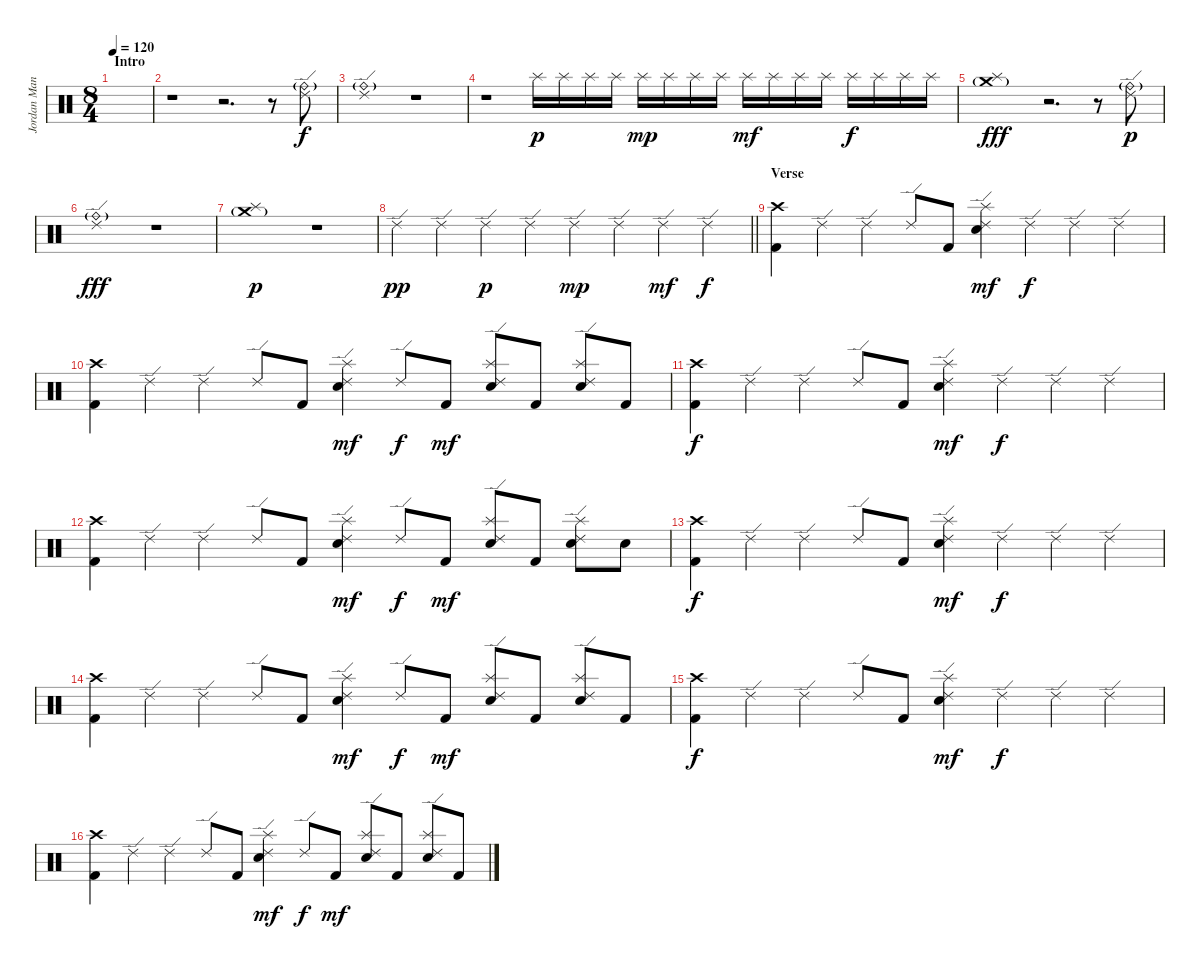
\track ("Jordan Mancino" "Jordan Man") {instrument percussion}
\staff {score}
\articulation defaults
\ts (8 4)
\section ("" "Intro")
\tempo 120
\clef neutral
\ks c
|
r.1 r.2{d} r.8 ("Ride (edge) 2" "Ride (bell)"{g}).8 |
("Ride (edge) 2" "Ride (bell)"{g}).1 r.1 |
r.1 "Splash (hit)".16{dy p} "Splash (hit)".16 "Splash (hit)".16 "Splash (hit)".16 "Splash (hit)".16{dy mp} "Splash (hit)".16 "Splash (hit)".16 "Splash (hit)".16 "Splash (hit)".16{dy mf} "Splash (hit)".16 "Splash (hit)".16 "Splash (hit)".16 "Splash (hit)".16{dy f} "Splash (hit)".16 "Splash (hit)".16 "Splash (hit)".16 |
("Splash (hit)" "Crash medium (hit)"{g}).1{dy fff} r.2{d} r.8 ("Ride (edge) 2" "Ride (bell)"{g}).8{dy p} |
("Ride (edge) 2" "Ride (bell)"{g}).1{dy fff} r.1 |
("Splash (hit)" "Crash medium (hit)"{g}).1{dy p} r.1 |
\barLineRight lightlight "Ride (edge) 2".4{dy pp} "Ride (edge) 2".4 "Ride (edge) 2".4{dy p} "Ride (edge) 2".4 "Ride (edge) 2".4{dy mp} "Ride (edge) 2".4 "Ride (edge) 2".4{dy mf} "Ride (edge) 2".4{dy f}
|
\section ("" "Verse")
("Crash high (hit)" "Kick (hit) 2").4 "Ride (edge) 2".4 "Ride (edge) 2".4 "Ride (edge) 2".8 "Kick (hit) 2".8 ("Ride (edge) 2" "Splash (hit)" "Electric Snare (hit)").4{dy mf} "Ride (edge) 2".4{dy f} "Ride (edge) 2".4 "Ride (edge) 2".4 |
("Crash high (hit)" "Kick (hit) 2").4 "Ride (edge) 2".4 "Ride (edge) 2".4 "Ride (edge) 2".8 "Kick (hit) 2".8 ("Ride (edge) 2" "Splash (hit)" "Electric Snare (hit)").4{dy mf} "Ride (edge) 2".8{dy f} "Kick (hit) 2".8{dy mf} ("Ride (edge) 2" "Splash (hit)" "Electric Snare (hit)").8 "Kick (hit) 2".8 ("Ride (edge) 2" "Splash (hit)" "Electric Snare (hit)").8 "Kick (hit) 2".8 |
("Crash high (hit)" "Kick (hit) 2").4{dy f} "Ride (edge) 2".4 "Ride (edge) 2".4 "Ride (edge) 2".8 "Kick (hit) 2".8 ("Ride (edge) 2" "Splash (hit)" "Electric Snare (hit)").4{dy mf} "Ride (edge) 2".4{dy f} "Ride (edge) 2".4 "Ride (edge) 2".4 |
("Crash high (hit)" "Kick (hit) 2").4 "Ride (edge) 2".4 "Ride (edge) 2".4 "Ride (edge) 2".8 "Kick (hit) 2".8 ("Ride (edge) 2" "Splash (hit)" "Electric Snare (hit)").4{dy mf} "Ride (edge) 2".8{dy f} "Kick (hit) 2".8{dy mf} ("Ride (edge) 2" "Splash (hit)" "Electric Snare (hit)").8 "Kick (hit) 2".8 ("Ride (edge) 2" "Splash (hit)" "Electric Snare (hit)").8 "Electric Snare (hit)".8 |
("Crash high (hit)" "Kick (hit) 2").4{dy f} "Ride (edge) 2".4 "Ride (edge) 2".4 "Ride (edge) 2".8 "Kick (hit) 2".8 ("Ride (edge) 2" "Splash (hit)" "Electric Snare (hit)").4{dy mf} "Ride (edge) 2".4{dy f} "Ride (edge) 2".4 "Ride (edge) 2".4 |
("Crash high (hit)" "Kick (hit) 2").4 "Ride (edge) 2".4 "Ride (edge) 2".4 "Ride (edge) 2".8 "Kick (hit) 2".8 ("Ride (edge) 2" "Splash (hit)" "Electric Snare (hit)").4{dy mf} "Ride (edge) 2".8{dy f} "Kick (hit) 2".8{dy mf} ("Ride (edge) 2" "Splash (hit)" "Electric Snare (hit)").8 "Kick (hit) 2".8 ("Ride (edge) 2" "Splash (hit)" "Electric Snare (hit)").8 "Kick (hit) 2".8 |
("Crash high (hit)" "Kick (hit) 2").4{dy f} "Ride (edge) 2".4 "Ride (edge) 2".4 "Ride (edge) 2".8 "Kick (hit) 2".8 ("Ride (edge) 2" "Splash (hit)" "Electric Snare (hit)").4{dy mf} "Ride (edge) 2".4{dy f} "Ride (edge) 2".4 "Ride (edge) 2".4 |
("Crash high (hit)" "Kick (hit) 2").4 "Ride (edge) 2".4 "Ride (edge) 2".4 "Ride (edge) 2".8 "Kick (hit) 2".8 ("Ride (edge) 2" "Splash (hit)" "Electric Snare (hit)").4{dy mf} "Ride (edge) 2".8{dy f} "Kick (hit) 2".8{dy mf} ("Ride (edge) 2" "Splash (hit)" "Electric Snare (hit)").8 "Kick (hit) 2".8 ("Ride (edge) 2" "Splash (hit)" "Electric Snare (hit)").8 "Kick (hit) 2".8
